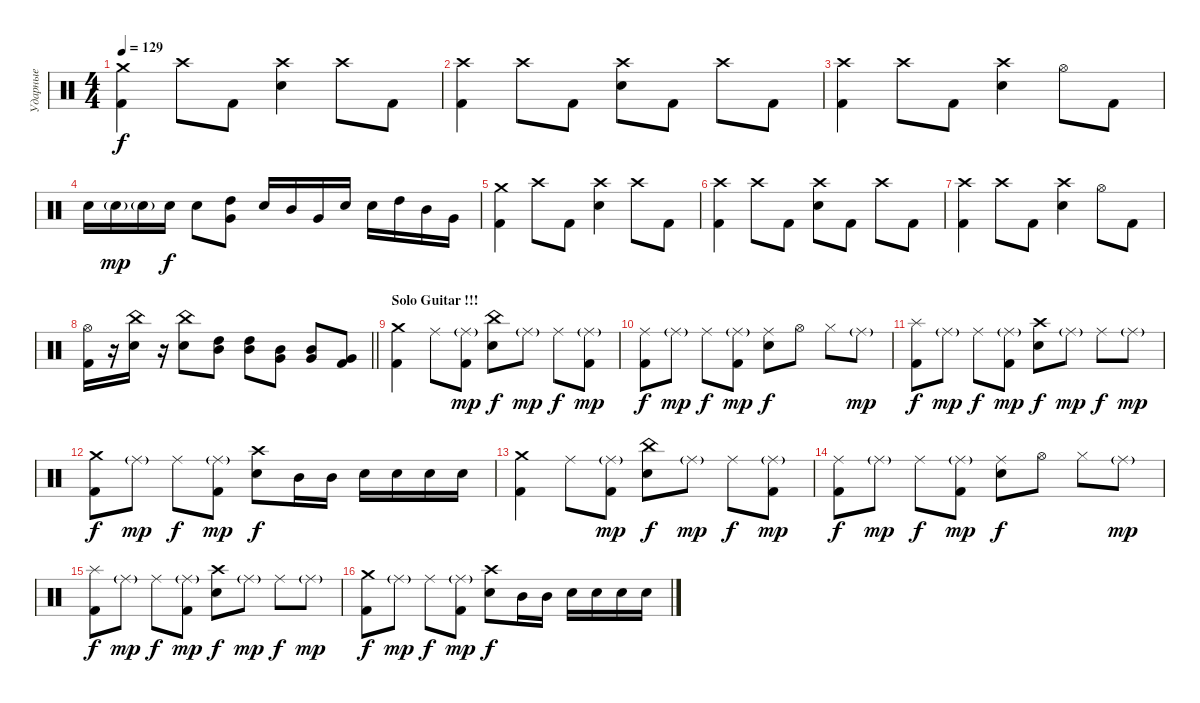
\track ("Ударные" "Ударные") {instrument percussion}
\staff
\articulation defaults
\ts (4 4)
\tempo 129
\clef neutral
\ks c
("Crash medium (hit)" "Kick (hit) 2").4{dy f} "Crash high (hit)".8 "Kick (hit) 2".8 ("Crash high (hit)" "Snare (hit) 2").4 "Crash high (hit)".8 "Kick (hit) 2".8 |
("Crash high (hit)" "Kick (hit) 2").4 "Crash high (hit)".8 "Kick (hit) 2".8 ("Crash high (hit)" "Snare (hit) 2").8 "Kick (hit) 2".8 "Crash high (hit)".8 "Kick (hit) 2".8 |
("Crash high (hit)" "Kick (hit) 2").4 "Crash high (hit)".8 "Kick (hit) 2".8 ("Crash high (hit)" "Snare (hit) 2").4 "Hi-Hat (open)".8 "Kick (hit) 2".8 |
"Snare (hit) 2".16 "Snare (hit) 2"{g}.16{dy mp} "Snare (hit) 2"{g}.16 "Snare (hit) 2".16{dy f} "Snare (hit) 2".8 ("High Tom (hit)" "Very Low Tom (hit)").8 "Snare (hit) 2".16 "Mid Tom (hit)".16 "Very Low Tom (hit)".16 "Snare (hit) 2".16 "Snare (hit) 2".16 "High Tom (hit)".16 "Mid Tom (hit)".16 "Very Low Tom (hit)".16 |
("Crash medium (hit)" "Kick (hit) 2").4 "Crash high (hit)".8 "Kick (hit) 2".8 ("Crash high (hit)" "Snare (hit) 2").4 "Crash high (hit)".8 "Kick (hit) 2".8 |
("Crash high (hit)" "Kick (hit) 2").4 "Crash high (hit)".8 "Kick (hit) 2".8 ("Crash high (hit)" "Snare (hit) 2").8 "Kick (hit) 2".8 "Crash high (hit)".8 "Kick (hit) 2".8 |
("Crash high (hit)" "Kick (hit) 2").4 "Crash high (hit)".8 "Kick (hit) 2".8 ("Crash high (hit)" "Snare (hit) 2").4 "Hi-Hat (open)".8 "Kick (hit) 2".8 |
\barLineRight lightlight
("Hi-Hat (open)" "Kick (hit) 2").16 r.16 ("China (hit)" "Snare (hit) 2").16 r.16 ("China (hit)" "Snare (hit) 2").8 ("High Tom (hit)" "Mid Tom (hit)").8 ("High Tom (hit)" "Mid Tom (hit)").8 ("Mid Tom (hit)" "Very Low Tom (hit)").8 ("Mid Tom (hit)" "Very Low Tom (hit)").8 ("Very Low Tom (hit)" "Kick (hit) 2").8 |
\section ("" "Solo Guitar !!!")
("Crash medium (hit)" "Kick (hit) 2").4 "Ride (middle)".8 ("Ride (middle)"{g} "Kick (hit) 2").8{dy mp} ("China (hit)" "Snare (hit) 2").8{dy f} "Ride (middle)"{g}.8{dy mp} "Ride (middle)".8{dy f} ("Ride (middle)"{g} "Kick (hit) 2").8{dy mp} |
("Ride (middle)" "Kick (hit) 2").8{dy f} "Ride (middle)"{g}.8{dy mp} "Ride (middle)".8{dy f} ("Ride (middle)"{g} "Kick (hit) 2").8{dy mp} ("Ride (middle)" "Snare (hit) 2").8{dy f} "Hi-Hat (open)".8 "Hi-Hat (closed)".8 "Ride (middle)"{g}.8{dy mp} |
("Splash (hit)" "Kick (hit) 2").8{dy f} "Ride (middle)"{g}.8{dy mp} "Ride (middle)".8{dy f} ("Ride (middle)"{g} "Kick (hit) 2").8{dy mp} ("Crash high (hit)" "Snare (hit) 2").8{dy f} "Ride (middle)"{g}.8{dy mp} "Ride (middle)".8{dy f} "Ride (middle)"{g}.8{dy mp} |
("Crash medium (hit)" "Kick (hit) 2").8{dy f} "Ride (middle)"{g}.8{dy mp} "Ride (middle)".8{dy f} ("Ride (middle)"{g} "Kick (hit) 2").8{dy mp} ("Crash high (hit)" "Snare (hit) 2").8{dy f} "Mid Tom (hit)".16 "Mid Tom (hit)".16 "Snare (hit) 2".16 "Snare (hit) 2".16 "Snare (hit) 2".16 "Snare (hit) 2".16 |
("Crash medium (hit)" "Kick (hit) 2").4 "Ride (middle)".8 ("Ride (middle)"{g} "Kick (hit) 2").8{dy mp} ("China (hit)" "Snare (hit) 2").8{dy f} "Ride (middle)"{g}.8{dy mp} "Ride (middle)".8{dy f} ("Ride (middle)"{g} "Kick (hit) 2").8{dy mp} |
("Ride (middle)" "Kick (hit) 2").8{dy f} "Ride (middle)"{g}.8{dy mp} "Ride (middle)".8{dy f} ("Ride (middle)"{g} "Kick (hit) 2").8{dy mp} ("Ride (middle)" "Snare (hit) 2").8{dy f} "Hi-Hat (open)".8 "Hi-Hat (closed)".8 "Ride (middle)"{g}.8{dy mp} |
("Splash (hit)" "Kick (hit) 2").8{dy f} "Ride (middle)"{g}.8{dy mp} "Ride (middle)".8{dy f} ("Ride (middle)"{g} "Kick (hit) 2").8{dy mp} ("Crash high (hit)" "Snare (hit) 2").8{dy f} "Ride (middle)"{g}.8{dy mp} "Ride (middle)".8{dy f} "Ride (middle)"{g}.8{dy mp} |
("Crash medium (hit)" "Kick (hit) 2").8{dy f} "Ride (middle)"{g}.8{dy mp} "Ride (middle)".8{dy f} ("Ride (middle)"{g} "Kick (hit) 2").8{dy mp} ("Crash high (hit)" "Snare (hit) 2").8{dy f} "Mid Tom (hit)".16 "Mid Tom (hit)".16 "Snare (hit) 2".16 "Snare (hit) 2".16 "Snare (hit) 2".16 "Snare (hit) 2".16
